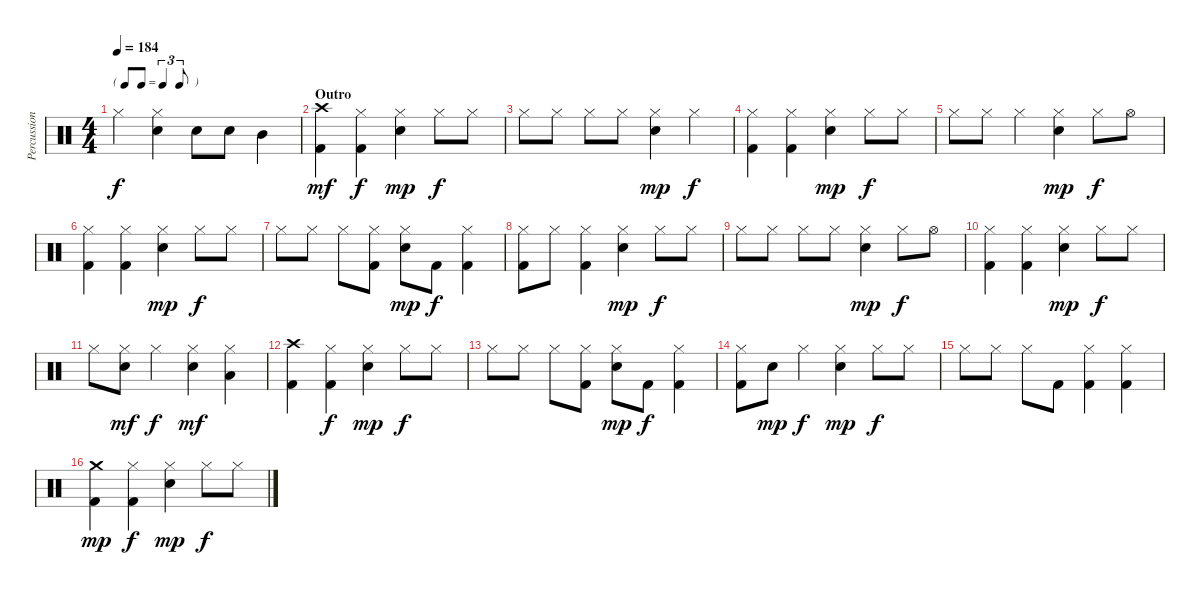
\track ("Percussion" "Percussion") {instrument percussion}
\staff {score}
\articulation defaults
\ts (4 4)
\tf triplet8th
\tempo 184
\clef neutral
\ks c "Hi-Hat (closed)".4{dy f}
("Hi-Hat (closed)" "Electric Snare (hit)").4 "Electric Snare (hit)".8 "Electric Snare (hit)".8 "Mid Tom (hit)".4 |
\section ("" "Outro")
("Crash high (hit)" "Kick (hit) 2").4{dy mf} ("Hi-Hat (closed)" "Kick (hit) 2").4{dy f} ("Hi-Hat (closed)" "Electric Snare (hit)").4{dy mp} "Hi-Hat (closed)".8{dy f} "Hi-Hat (closed)".8 |
"Hi-Hat (closed)".8 "Hi-Hat (closed)".8 "Hi-Hat (closed)".8 "Hi-Hat (closed)".8 ("Hi-Hat (closed)" "Electric Snare (hit)").4{dy mp} "Hi-Hat (closed)".4{dy f} |
("Hi-Hat (closed)" "Kick (hit) 2").4 ("Hi-Hat (closed)" "Kick (hit) 2").4 ("Hi-Hat (closed)" "Electric Snare (hit)").4{dy mp} "Hi-Hat (closed)".8{dy f} "Hi-Hat (closed)".8 |
"Hi-Hat (closed)".8 "Hi-Hat (closed)".8 "Hi-Hat (closed)".4 ("Hi-Hat (closed)" "Electric Snare (hit)").4{dy mp} "Hi-Hat (closed)".8{dy f} "Hi-Hat (open)".8 |
("Hi-Hat (closed)" "Kick (hit) 2").4 ("Hi-Hat (closed)" "Kick (hit) 2").4 ("Hi-Hat (closed)" "Electric Snare (hit)").4{dy mp} "Hi-Hat (closed)".8{dy f} "Hi-Hat (closed)".8 |
"Hi-Hat (closed)".8 "Hi-Hat (closed)".8 "Hi-Hat (closed)".8 ("Hi-Hat (closed)" "Kick (hit) 2").8 ("Hi-Hat (closed)" "Electric Snare (hit)").8{dy mp} "Kick (hit) 2".8{dy f} ("Hi-Hat (closed)" "Kick (hit) 2").4 |
("Hi-Hat (closed)" "Kick (hit) 2").8 "Hi-Hat (closed)".8 ("Hi-Hat (closed)" "Kick (hit) 2").4 ("Hi-Hat (closed)" "Electric Snare (hit)").4{dy mp} "Hi-Hat (closed)".8{dy f} "Hi-Hat (closed)".8 |
"Hi-Hat (closed)".8 "Hi-Hat (closed)".8 "Hi-Hat (closed)".8 "Hi-Hat (closed)".8 ("Hi-Hat (closed)" "Electric Snare (hit)").4{dy mp} "Hi-Hat (closed)".8{dy f} "Hi-Hat (open)".8 |
("Hi-Hat (closed)" "Kick (hit) 2").4 ("Hi-Hat (closed)" "Kick (hit) 2").4 ("Hi-Hat (closed)" "Electric Snare (hit)").4{dy mp} "Hi-Hat (closed)".8{dy f} "Hi-Hat (closed)".8 |
"Hi-Hat (closed)".8 ("Hi-Hat (closed)" "Electric Snare (hit)").8{dy mf} "Hi-Hat (closed)".4{dy f} ("Hi-Hat (closed)" "Electric Snare (hit)").4{dy mf} ("Hi-Hat (closed)" "Low Floor Tom (hit)").4 |
("Crash high (hit)" "Kick (hit) 2").4 ("Hi-Hat (closed)" "Kick (hit) 2").4{dy f} ("Hi-Hat (closed)" "Electric Snare (hit)").4{dy mp} "Hi-Hat (closed)".8{dy f} "Hi-Hat (closed)".8 |
"Hi-Hat (closed)".8 "Hi-Hat (closed)".8 "Hi-Hat (closed)".8 ("Hi-Hat (closed)" "Kick (hit) 2").8 ("Hi-Hat (closed)" "Electric Snare (hit)").8{dy mp} "Kick (hit) 2".8{dy f} ("Hi-Hat (closed)" "Kick (hit) 2").4 |
("Hi-Hat (closed)" "Kick (hit) 2").8 "Electric Snare (hit)".8{dy mp} "Hi-Hat (closed)".4{dy f} ("Hi-Hat (closed)" "Electric Snare (hit)").4{dy mp} "Hi-Hat (closed)".8{dy f} "Hi-Hat (closed)".8 |
"Hi-Hat (closed)".8 "Hi-Hat (closed)".8 "Hi-Hat (closed)".8 "Kick (hit) 2".8 ("Hi-Hat (closed)" "Kick (hit) 2").4 ("Hi-Hat (closed)" "Kick (hit) 2").4 |
("Crash medium (hit)" "Kick (hit) 2").4{dy mp} ("Hi-Hat (closed)" "Kick (hit) 2").4{dy f} ("Hi-Hat (closed)" "Electric Snare (hit)").4{dy mp} "Hi-Hat (closed)".8{dy f} "Hi-Hat (closed)".8
